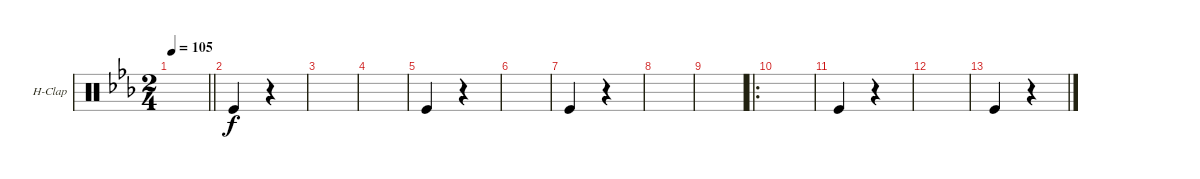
\defaultSystemsLayout 4
\bracketExtendMode groupsimilarinstruments
\firstSystemTrackNameOrientation horizontal
\otherSystemsTrackNameOrientation horizontal
\track ("Hand Clap" "H-Clap") {instrument percussion}
\staff {score}
\articulation defaults
\ts (2 4)
\tempo 105
\clef neutral
\scale
0.525424
\barLineRight lightlight
\ks cminor
|
\scale
0.237288 "Kick (hit)".4 r.4 |
\scale
0.237288 |
\scale
0.333333 |
\scale
0.333333 "Kick (hit)".4 r.4 |
\scale
0.333333 |
\scale
0.333333 "Kick (hit)".4 r.4 |
\scale
0.333333 |
\scale
0.333333 |
\ro
\scale
0.377778 |
\scale
0.311111 "Kick (hit)".4 r.4 |
\scale
0.311111 |
\scale
0.333333 "Kick (hit)".4 r.4 |
\scale
0.333333 |
\scale
0.333333
